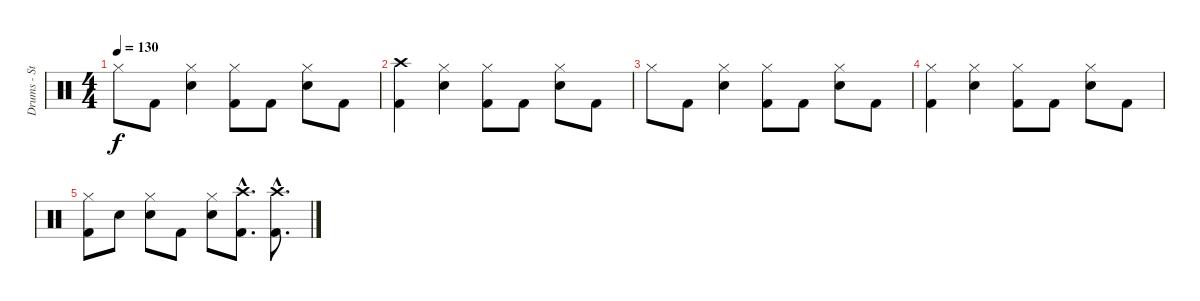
\track ("Drums - Steven" "Drums - St") {instrument percussion}
\staff {score}
\articulation defaults
\ts (4 4)
\tempo 130
\clef neutral
\ks c "Hi-Hat (closed)".8{dy f} "Kick (hit) 2".8
("Electric Snare (hit)" "Hi-Hat (closed)").4 ("Kick (hit) 2" "Hi-Hat (closed)").8 "Kick (hit) 2".8 ("Electric Snare (hit)" "Hi-Hat (closed)").8 "Kick (hit) 2".8 |
("Kick (hit) 2" "Crash high (hit)").4 ("Electric Snare (hit)" "Hi-Hat (closed)").4 ("Kick (hit) 2" "Hi-Hat (closed)").8 "Kick (hit) 2".8 ("Electric Snare (hit)" "Hi-Hat (closed)").8 "Kick (hit) 2".8 |
"Hi-Hat (closed)".8 "Kick (hit) 2".8 ("Electric Snare (hit)" "Hi-Hat (closed)").4 ("Kick (hit) 2" "Hi-Hat (closed)").8 "Kick (hit) 2".8 ("Electric Snare (hit)" "Hi-Hat (closed)").8 "Kick (hit) 2".8 |
("Kick (hit) 2" "Hi-Hat (closed)").4 ("Electric Snare (hit)" "Hi-Hat (closed)").4 ("Kick (hit) 2" "Hi-Hat (closed)").8 "Kick (hit) 2".8 ("Electric Snare (hit)" "Hi-Hat (closed)").8 "Kick (hit) 2".8 |
("Kick (hit) 2" "Hi-Hat (closed)").8 "Electric Snare (hit)".8 ("Electric Snare (hit)" "Hi-Hat (closed)").8 "Kick (hit) 2".8 ("Electric Snare (hit)" "Hi-Hat (closed)").8 ("Kick (hit) 2"{hac} "Crash high (hit)"{hac}).8{d} ("Kick (hit) 2"{hac} "Crash high (hit)"{hac}).8{d}
